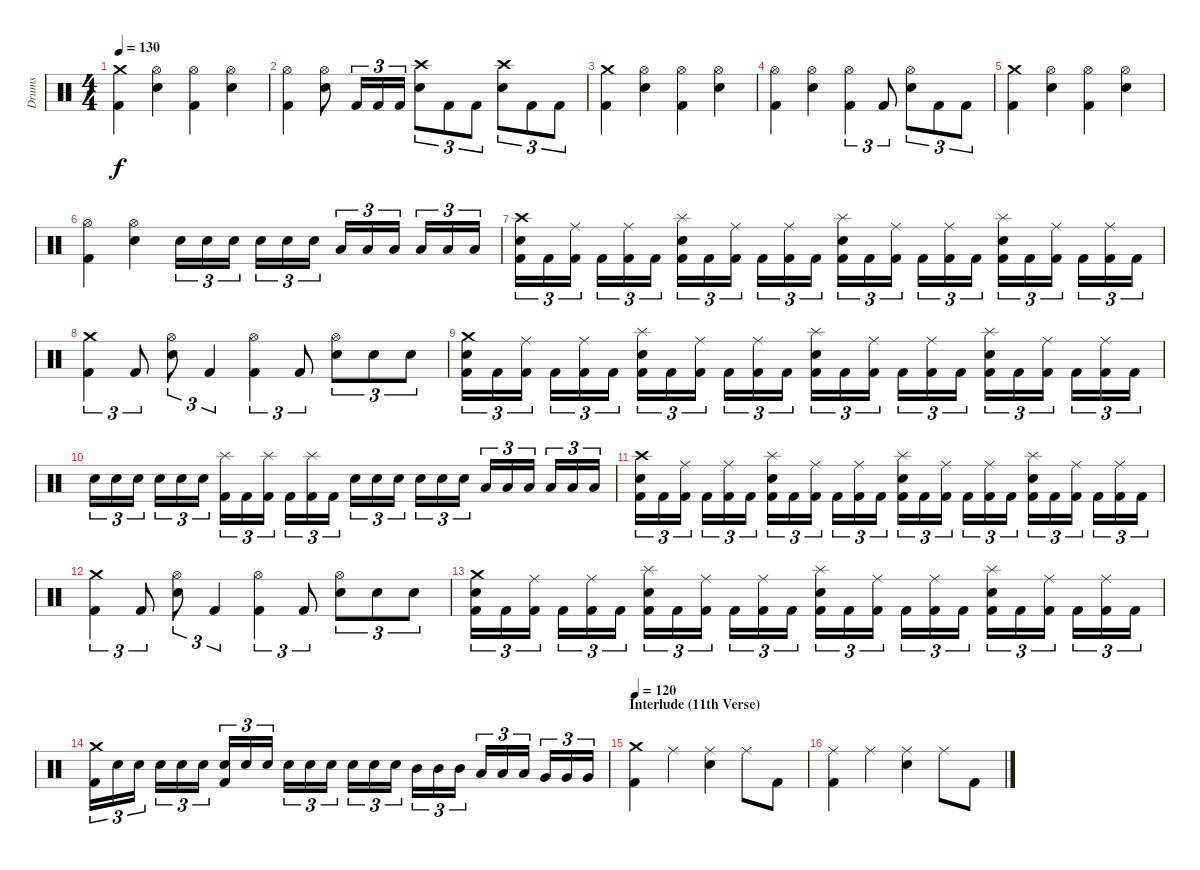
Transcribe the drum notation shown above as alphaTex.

\track ("Drums" "Drums") {instrument percussion}
\staff {score}
\articulation defaults
\ts (4 4)
\tempo 130
\clef neutral
\ks c
("Kick (hit) 2" "Crash medium (hit)").4{dy f} ("Electric Snare (hit)" "Hi-Hat (open)").4 ("Kick (hit) 2" "Hi-Hat (open)").4 ("Electric Snare (hit)" "Hi-Hat (open)").4 |
("Kick (hit) 2" "Hi-Hat (open)").4 ("Electric Snare (hit)" "Hi-Hat (open)").8 "Kick (hit) 2".16{tu (3 2)} "Kick (hit) 2".16{tu (3 2)} "Kick (hit) 2".16{tu (3 2)} ("Electric Snare (hit)" "Crash high (hit)").8{tu (3 2)} "Kick (hit) 2".8{tu (3 2)} "Kick (hit) 2".8{tu (3 2)} ("Electric Snare (hit)" "Crash high (hit)").8{tu (3 2)} "Kick (hit) 2".8{tu (3 2)} "Kick (hit) 2".8{tu (3 2)} |
("Kick (hit) 2" "Crash medium (hit)").4 ("Electric Snare (hit)" "Hi-Hat (open)").4 ("Kick (hit) 2" "Hi-Hat (open)").4 ("Electric Snare (hit)" "Hi-Hat (open)").4 |
("Kick (hit) 2" "Hi-Hat (open)").4 ("Electric Snare (hit)" "Hi-Hat (open)").4 ("Kick (hit) 2" "Hi-Hat (open)").4{tu (3 2)} "Kick (hit) 2".8{tu (3 2)} ("Electric Snare (hit)" "Hi-Hat (open)").8{tu (3 2)} "Kick (hit) 2".8{tu (3 2)} "Kick (hit) 2".8{tu (3 2)} |
("Kick (hit) 2" "Crash medium (hit)").4 ("Electric Snare (hit)" "Hi-Hat (open)").4 ("Kick (hit) 2" "Hi-Hat (open)").4 ("Electric Snare (hit)" "Hi-Hat (open)").4 |
("Kick (hit) 2" "Hi-Hat (open)").4 ("Electric Snare (hit)" "Hi-Hat (open)").4 "Electric Snare (hit)".16{tu (3 2)} "Electric Snare (hit)".16{tu (3 2)} "Electric Snare (hit)".16{tu (3 2)} "Electric Snare (hit)".16{tu (3 2)} "Electric Snare (hit)".16{tu (3 2)} "Electric Snare (hit)".16{tu (3 2)} "Low Tom (hit)".16{tu (3 2)} "Low Tom (hit)".16{tu (3 2)} "Low Tom (hit)".16{tu (3 2)} "Low Tom (hit)".16{tu (3 2)} "Low Tom (hit)".16{tu (3 2)} "Low Tom (hit)".16{tu (3 2)} |
("Kick (hit) 2" "Electric Snare (hit)" "Crash high (hit)").16{tu (3 2)} "Kick (hit) 2".16{tu (3 2)} ("Kick (hit) 2" "Ride (middle)").16{tu (3 2)} "Kick (hit) 2".16{tu (3 2)} ("Kick (hit) 2" "Ride (middle)").16{tu (3 2)} "Kick (hit) 2".16{tu (3 2)} ("Kick (hit) 2" "Electric Snare (hit)" "Splash (hit)").16{tu (3 2)} "Kick (hit) 2".16{tu (3 2)} ("Kick (hit) 2" "Ride (middle)").16{tu (3 2)} "Kick (hit) 2".16{tu (3 2)} ("Kick (hit) 2" "Ride (middle)").16{tu (3 2)} "Kick (hit) 2".16{tu (3 2)} ("Kick (hit) 2" "Electric Snare (hit)" "Splash (hit)").16{tu (3 2)} "Kick (hit) 2".16{tu (3 2)} ("Kick (hit) 2" "Ride (middle)").16{tu (3 2)} "Kick (hit) 2".16{tu (3 2)} ("Kick (hit) 2" "Ride (middle)").16{tu (3 2)} "Kick (hit) 2".16{tu (3 2)} ("Kick (hit) 2" "Electric Snare (hit)" "Splash (hit)").16{tu (3 2)} "Kick (hit) 2".16{tu (3 2)} ("Kick (hit) 2" "Ride (middle)").16{tu (3 2)} "Kick (hit) 2".16{tu (3 2)} ("Kick (hit) 2" "Ride (middle)").16{tu (3 2)} "Kick (hit) 2".16{tu (3 2)} |
("Kick (hit) 2" "Crash medium (hit)").4{tu (3 2)} "Kick (hit) 2".8{tu (3 2)} ("Electric Snare (hit)" "Hi-Hat (open)").8{tu (3 2)} "Kick (hit) 2".4{tu (3 2)} ("Kick (hit) 2" "Hi-Hat (open)").4{tu (3 2)} "Kick (hit) 2".8{tu (3 2)} ("Electric Snare (hit)" "Hi-Hat (open)").8{tu (3 2)} "Electric Snare (hit)".8{tu (3 2)} "Electric Snare (hit)".8{tu (3 2)} |
("Kick (hit) 2" "Electric Snare (hit)" "Crash medium (hit)").16{tu (3 2)} "Kick (hit) 2".16{tu (3 2)} ("Kick (hit) 2" "Ride (middle)").16{tu (3 2)} "Kick (hit) 2".16{tu (3 2)} ("Kick (hit) 2" "Ride (middle)").16{tu (3 2)} "Kick (hit) 2".16{tu (3 2)} ("Kick (hit) 2" "Electric Snare (hit)" "Splash (hit)").16{tu (3 2)} "Kick (hit) 2".16{tu (3 2)} ("Kick (hit) 2" "Ride (middle)").16{tu (3 2)} "Kick (hit) 2".16{tu (3 2)} ("Kick (hit) 2" "Ride (middle)").16{tu (3 2)} "Kick (hit) 2".16{tu (3 2)} ("Kick (hit) 2" "Electric Snare (hit)" "Splash (hit)").16{tu (3 2)} "Kick (hit) 2".16{tu (3 2)} ("Kick (hit) 2" "Ride (middle)").16{tu (3 2)} "Kick (hit) 2".16{tu (3 2)} ("Kick (hit) 2" "Ride (middle)").16{tu (3 2)} "Kick (hit) 2".16{tu (3 2)} ("Kick (hit) 2" "Electric Snare (hit)" "Splash (hit)").16{tu (3 2)} "Kick (hit) 2".16{tu (3 2)} ("Kick (hit) 2" "Ride (middle)").16{tu (3 2)} "Kick (hit) 2".16{tu (3 2)} ("Kick (hit) 2" "Ride (middle)").16{tu (3 2)} "Kick (hit) 2".16{tu (3 2)} |
"Electric Snare (hit)".16{tu (3 2)} "Electric Snare (hit)".16{tu (3 2)} "Electric Snare (hit)".16{tu (3 2)} "Electric Snare (hit)".16{tu (3 2)} "Electric Snare (hit)".16{tu (3 2)} "Electric Snare (hit)".16{tu (3 2)} ("Kick (hit) 2" "Splash (hit)").16{tu (3 2)} "Kick (hit) 2".16{tu (3 2)} ("Kick (hit) 2" "Splash (hit)").16{tu (3 2)} "Kick (hit) 2".16{tu (3 2)} ("Kick (hit) 2" "Splash (hit)").16{tu (3 2)} "Kick (hit) 2".16{tu (3 2)} "Electric Snare (hit)".16{tu (3 2)} "Electric Snare (hit)".16{tu (3 2)} "Electric Snare (hit)".16{tu (3 2)} "Electric Snare (hit)".16{tu (3 2)} "Electric Snare (hit)".16{tu (3 2)} "Electric Snare (hit)".16{tu (3 2)} "Low Tom (hit)".16{tu (3 2)} "Low Tom (hit)".16{tu (3 2)} "Low Tom (hit)".16{tu (3 2)} "Low Tom (hit)".16{tu (3 2)} "Low Tom (hit)".16{tu (3 2)} "Low Tom (hit)".16{tu (3 2)} |
("Kick (hit) 2" "Electric Snare (hit)" "Crash high (hit)").16{tu (3 2)} "Kick (hit) 2".16{tu (3 2)} ("Kick (hit) 2" "Ride (middle)").16{tu (3 2)} "Kick (hit) 2".16{tu (3 2)} ("Kick (hit) 2" "Ride (middle)").16{tu (3 2)} "Kick (hit) 2".16{tu (3 2)} ("Kick (hit) 2" "Electric Snare (hit)" "Splash (hit)").16{tu (3 2)} "Kick (hit) 2".16{tu (3 2)} ("Kick (hit) 2" "Ride (middle)").16{tu (3 2)} "Kick (hit) 2".16{tu (3 2)} ("Kick (hit) 2" "Ride (middle)").16{tu (3 2)} "Kick (hit) 2".16{tu (3 2)} ("Kick (hit) 2" "Electric Snare (hit)" "Splash (hit)").16{tu (3 2)} "Kick (hit) 2".16{tu (3 2)} ("Kick (hit) 2" "Ride (middle)").16{tu (3 2)} "Kick (hit) 2".16{tu (3 2)} ("Kick (hit) 2" "Ride (middle)").16{tu (3 2)} "Kick (hit) 2".16{tu (3 2)} ("Kick (hit) 2" "Electric Snare (hit)" "Splash (hit)").16{tu (3 2)} "Kick (hit) 2".16{tu (3 2)} ("Kick (hit) 2" "Ride (middle)").16{tu (3 2)} "Kick (hit) 2".16{tu (3 2)} ("Kick (hit) 2" "Ride (middle)").16{tu (3 2)} "Kick (hit) 2".16{tu (3 2)} |
("Kick (hit) 2" "Crash medium (hit)").4{tu (3 2)} "Kick (hit) 2".8{tu (3 2)} ("Electric Snare (hit)" "Hi-Hat (open)").8{tu (3 2)} "Kick (hit) 2".4{tu (3 2)} ("Kick (hit) 2" "Hi-Hat (open)").4{tu (3 2)} "Kick (hit) 2".8{tu (3 2)} ("Electric Snare (hit)" "Hi-Hat (open)").8{tu (3 2)} "Electric Snare (hit)".8{tu (3 2)} "Electric Snare (hit)".8{tu (3 2)} |
("Kick (hit) 2" "Electric Snare (hit)" "Crash medium (hit)").16{tu (3 2)} "Kick (hit) 2".16{tu (3 2)} ("Kick (hit) 2" "Ride (middle)").16{tu (3 2)} "Kick (hit) 2".16{tu (3 2)} ("Kick (hit) 2" "Ride (middle)").16{tu (3 2)} "Kick (hit) 2".16{tu (3 2)} ("Kick (hit) 2" "Electric Snare (hit)" "Splash (hit)").16{tu (3 2)} "Kick (hit) 2".16{tu (3 2)} ("Kick (hit) 2" "Ride (middle)").16{tu (3 2)} "Kick (hit) 2".16{tu (3 2)} ("Kick (hit) 2" "Ride (middle)").16{tu (3 2)} "Kick (hit) 2".16{tu (3 2)} ("Kick (hit) 2" "Electric Snare (hit)" "Splash (hit)").16{tu (3 2)} "Kick (hit) 2".16{tu (3 2)} ("Kick (hit) 2" "Ride (middle)").16{tu (3 2)} "Kick (hit) 2".16{tu (3 2)} ("Kick (hit) 2" "Ride (middle)").16{tu (3 2)} "Kick (hit) 2".16{tu (3 2)} ("Kick (hit) 2" "Electric Snare (hit)" "Splash (hit)").16{tu (3 2)} "Kick (hit) 2".16{tu (3 2)} ("Kick (hit) 2" "Ride (middle)").16{tu (3 2)} "Kick (hit) 2".16{tu (3 2)} ("Kick (hit) 2" "Ride (middle)").16{tu (3 2)} "Kick (hit) 2".16{tu (3 2)} |
("Kick (hit) 2" "Crash medium (hit)").16{tu (3 2)} "Electric Snare (hit)".16{tu (3 2)} "Electric Snare (hit)".16{tu (3 2)} "Electric Snare (hit)".16{tu (3 2)} "Electric Snare (hit)".16{tu (3 2)} "Electric Snare (hit)".16{tu (3 2)} ("Kick (hit) 2" "Electric Snare (hit)").16{tu (3 2)} "Electric Snare (hit)".16{tu (3 2)} "Electric Snare (hit)".16{tu (3 2)} "Electric Snare (hit)".16{tu (3 2)} "Electric Snare (hit)".16{tu (3 2)} "Electric Snare (hit)".16{tu (3 2)} "Electric Snare (hit)".16{tu (3 2)} "Electric Snare (hit)".16{tu (3 2)} "Electric Snare (hit)".16{tu (3 2)} "Mid Tom (hit)".16{tu (3 2)} "Mid Tom (hit)".16{tu (3 2)} "Mid Tom (hit)".16{tu (3 2)} "Low Tom (hit)".16{tu (3 2)} "Low Tom (hit)".16{tu (3 2)} "Low Tom (hit)".16{tu (3 2)} "Very Low Tom (hit)".16{tu (3 2)} "Very Low Tom (hit)".16{tu (3 2)} "Very Low Tom (hit)".16{tu (3 2)} |
\section ("" "Interlude (11th Verse)")
\tempo 120
("Kick (hit) 2" "Crash medium (hit)").4 "Ride (middle)".4 ("Snare (hit) 2" "Ride (middle)").4 "Ride (middle)".8 "Kick (hit) 2".8 |
("Kick (hit) 2" "Ride (middle)").4 "Ride (middle)".4 ("Snare (hit) 2" "Ride (middle)").4 "Ride (middle)".8 "Kick (hit) 2".8
